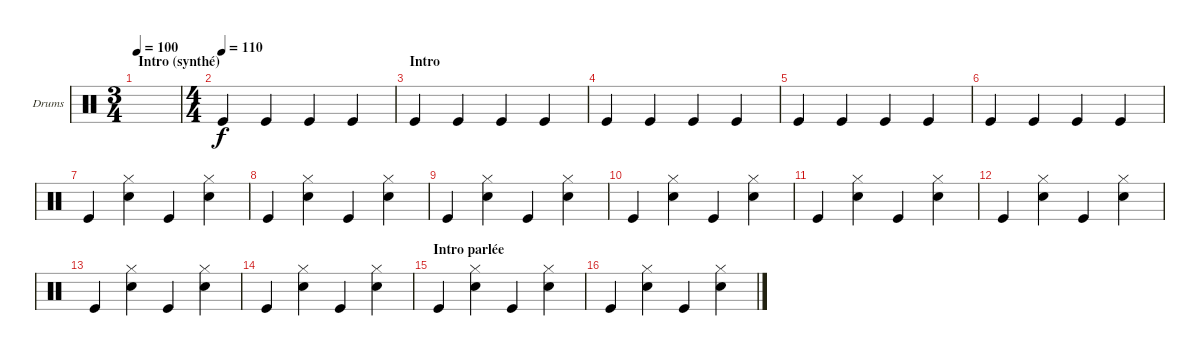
\defaultSystemsLayout 4
\bracketExtendMode groupsimilarinstruments
\firstSystemTrackNameOrientation horizontal
\otherSystemsTrackNameOrientation horizontal
\track ("Drumkit" "Drums") {instrument percussion}
\staff {score}
\articulation defaults
\ts (3 4)
\section ("" "Intro (synthé)")
\tempo 100
\clef neutral
\ks c
|
\ts (4 4)
\tempo (110)
"Kick (hit)".4 "Kick (hit)".4 "Kick (hit)".4 "Kick (hit)".4 |
\section ("" "Intro")
"Kick (hit)".4 "Kick (hit)".4 "Kick (hit)".4 "Kick (hit)".4 |
"Kick (hit)".4 "Kick (hit)".4 "Kick (hit)".4 "Kick (hit)".4 |
"Kick (hit)".4 "Kick (hit)".4 "Kick (hit)".4 "Kick (hit)".4 |
"Kick (hit)".4 "Kick (hit)".4 "Kick (hit)".4 "Kick (hit)".4 |
"Kick (hit)".4 ("Snare (hit) 2" "Hi-Hat (closed)").4 "Kick (hit)".4 ("Snare (hit) 2" "Hi-Hat (closed)").4 |
"Kick (hit)".4 ("Snare (hit) 2" "Hi-Hat (closed)").4 "Kick (hit)".4 ("Snare (hit) 2" "Hi-Hat (closed)").4 |
"Kick (hit)".4 ("Snare (hit) 2" "Hi-Hat (closed)").4 "Kick (hit)".4 ("Snare (hit) 2" "Hi-Hat (closed)").4 |
"Kick (hit)".4 ("Snare (hit) 2" "Hi-Hat (closed)").4 "Kick (hit)".4 ("Snare (hit) 2" "Hi-Hat (closed)").4 |
"Kick (hit)".4 ("Snare (hit) 2" "Hi-Hat (closed)").4 "Kick (hit)".4 ("Snare (hit) 2" "Hi-Hat (closed)").4 |
"Kick (hit)".4 ("Snare (hit) 2" "Hi-Hat (closed)").4 "Kick (hit)".4 ("Snare (hit) 2" "Hi-Hat (closed)").4 |
"Kick (hit)".4 ("Snare (hit) 2" "Hi-Hat (closed)").4 "Kick (hit)".4 ("Snare (hit) 2" "Hi-Hat (closed)").4 |
"Kick (hit)".4 ("Snare (hit) 2" "Hi-Hat (closed)").4 "Kick (hit)".4 ("Snare (hit) 2" "Hi-Hat (closed)").4 |
\section ("" "Intro parlée")
"Kick (hit)".4 ("Snare (hit) 2" "Hi-Hat (closed)").4 "Kick (hit)".4 ("Snare (hit) 2" "Hi-Hat (closed)").4 |
"Kick (hit)".4 ("Snare (hit) 2" "Hi-Hat (closed)").4 "Kick (hit)".4 ("Snare (hit) 2" "Hi-Hat (closed)").4
